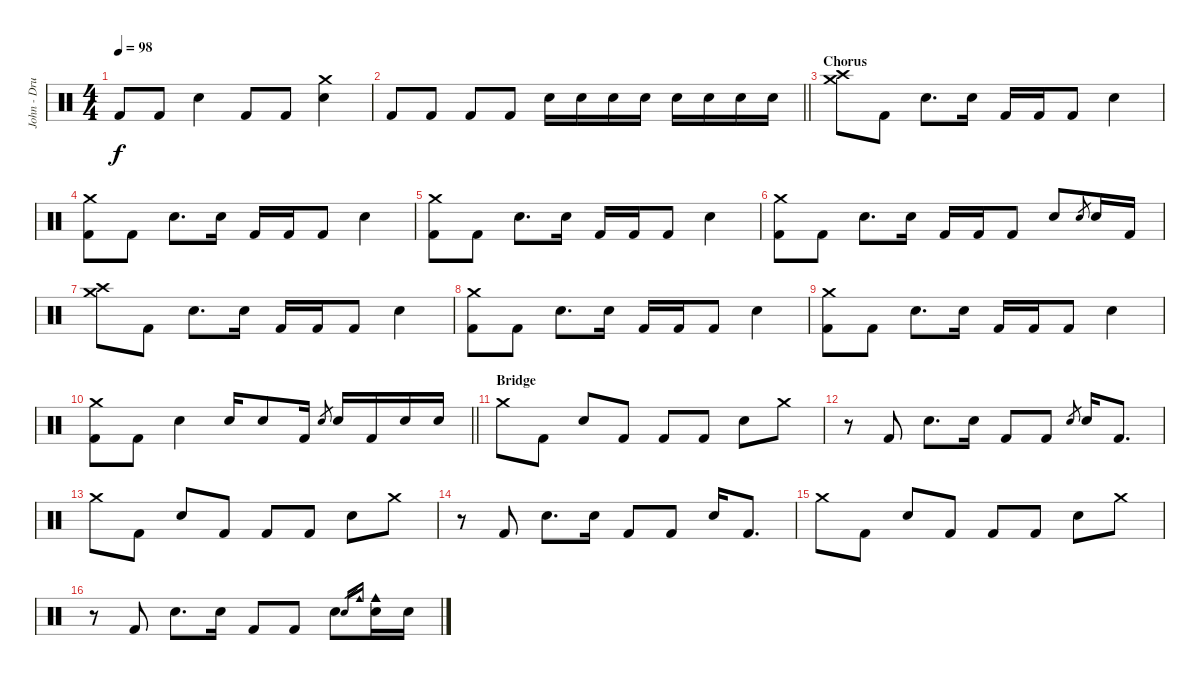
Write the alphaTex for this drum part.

\track ("John - Drums" "John - Dru") {instrument percussion}
\staff {score}
\articulation defaults
\ts (4 4)
\tempo 98
\clef neutral
\ks c "Kick (hit) 2".8{dy f} "Kick (hit) 2".8 "Electric Snare (hit)".4 "Kick (hit) 2".8 "Kick (hit) 2".8
("Electric Snare (hit)" "Crash medium (hit)").4 |
\barLineRight lightlight "Kick (hit) 2".8 "Kick (hit) 2".8 "Kick (hit) 2".8 "Kick (hit) 2".8 "Electric Snare (hit)".16 "Electric Snare (hit)".16 "Electric Snare (hit)".16 "Electric Snare (hit)".16 "Electric Snare (hit)".16 "Electric Snare (hit)".16 "Electric Snare (hit)".16 "Electric Snare (hit)".16
|
\section ("" "Chorus")
("Crash high (hit)" "Crash medium (hit)").8 "Kick (hit) 2".8 "Electric Snare (hit)".8{d} "Electric Snare (hit)".16 "Kick (hit) 2".16 "Kick (hit) 2".16 "Kick (hit) 2".8 "Electric Snare (hit)".4 |
("Crash medium (hit)" "Kick (hit) 2").8 "Kick (hit) 2".8 "Electric Snare (hit)".8{d} "Electric Snare (hit)".16 "Kick (hit) 2".16 "Kick (hit) 2".16 "Kick (hit) 2".8 "Electric Snare (hit)".4 |
("Crash medium (hit)" "Kick (hit) 2").8 "Kick (hit) 2".8 "Electric Snare (hit)".8{d} "Electric Snare (hit)".16 "Kick (hit) 2".16 "Kick (hit) 2".16 "Kick (hit) 2".8 "Electric Snare (hit)".4 |
("Crash medium (hit)" "Kick (hit) 2").8 "Kick (hit) 2".8 "Electric Snare (hit)".8{d} "Electric Snare (hit)".16 "Kick (hit) 2".16 "Kick (hit) 2".16 "Kick (hit) 2".8 "Electric Snare (hit)".8 "Electric Snare (hit)".8{gr} "Electric Snare (hit)".16 "Kick (hit) 2".16 |
("Crash high (hit)" "Crash medium (hit)").8 "Kick (hit) 2".8 "Electric Snare (hit)".8{d} "Electric Snare (hit)".16 "Kick (hit) 2".16 "Kick (hit) 2".16 "Kick (hit) 2".8 "Electric Snare (hit)".4 |
("Crash medium (hit)" "Kick (hit) 2").8 "Kick (hit) 2".8 "Electric Snare (hit)".8{d} "Electric Snare (hit)".16 "Kick (hit) 2".16 "Kick (hit) 2".16 "Kick (hit) 2".8 "Electric Snare (hit)".4 |
("Crash medium (hit)" "Kick (hit) 2").8 "Kick (hit) 2".8 "Electric Snare (hit)".8{d} "Electric Snare (hit)".16 "Kick (hit) 2".16 "Kick (hit) 2".16 "Kick (hit) 2".8 "Electric Snare (hit)".4 |
\barLineRight lightlight
("Crash medium (hit)" "Kick (hit) 2").8 "Kick (hit) 2".8 "Electric Snare (hit)".4 "Electric Snare (hit)".16 "Electric Snare (hit)".8 "Kick (hit) 2".16 "Electric Snare (hit)".8{gr} "Electric Snare (hit)".16 "Kick (hit) 2".16 "Electric Snare (hit)".16 "Electric Snare (hit)".16 |
\section ("" "Bridge")
"Crash medium (hit)".8 "Kick (hit) 2".8 "Electric Snare (hit)".8 "Kick (hit) 2".8 "Kick (hit) 2".8 "Kick (hit) 2".8 "Electric Snare (hit)".8 "Crash medium (hit)".8 |
r.8 "Kick (hit) 2".8 "Electric Snare (hit)".8{d} "Electric Snare (hit)".16 "Kick (hit) 2".8 "Kick (hit) 2".8 "Electric Snare (hit)".8{gr} "Electric Snare (hit)".16 "Kick (hit) 2".8{d} |
"Crash medium (hit)".8 "Kick (hit) 2".8 "Electric Snare (hit)".8 "Kick (hit) 2".8 "Kick (hit) 2".8 "Kick (hit) 2".8 "Electric Snare (hit)".8 "Crash medium (hit)".8 |
r.8 "Kick (hit) 2".8 "Electric Snare (hit)".8{d} "Electric Snare (hit)".16 "Kick (hit) 2".8 "Kick (hit) 2".8 "Electric Snare (hit)".16 "Kick (hit) 2".8{d} |
"Crash medium (hit)".8 "Kick (hit) 2".8 "Electric Snare (hit)".8 "Kick (hit) 2".8 "Kick (hit) 2".8 "Kick (hit) 2".8 "Electric Snare (hit)".8 "Crash medium (hit)".8 |
r.8 "Kick (hit) 2".8 "Electric Snare (hit)".8{d} "Electric Snare (hit)".16 "Kick (hit) 2".8 "Kick (hit) 2".8 "Electric Snare (hit)".8 "Electric Snare (hit)".16{gr} "Cowbell medium (hit)".16{gr} ("Electric Snare (hit)" "Cowbell medium (hit)").16 "Electric Snare (hit)".16
